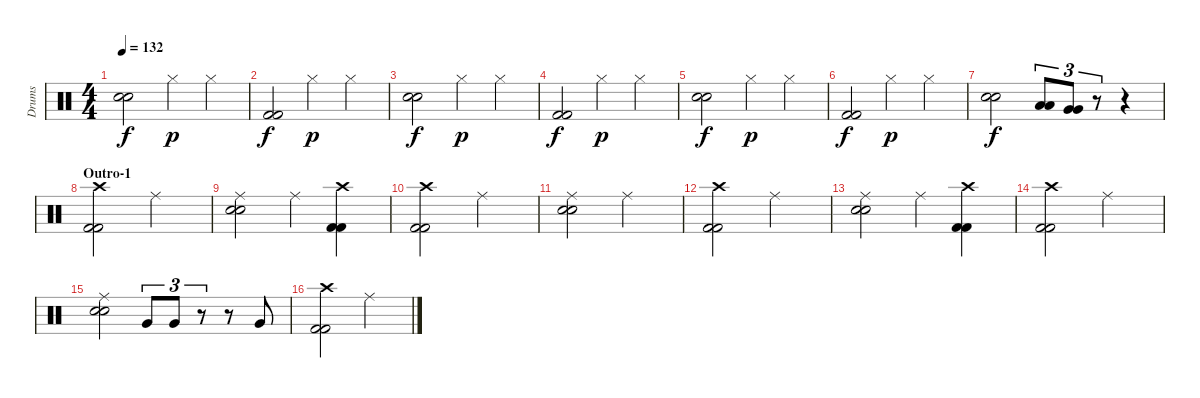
\track ("Drums" "Drums") {instrument percussion}
\staff {score}
\articulation defaults
\ts (4 4)
\tempo 132
\clef neutral
\ks c
("Snare (hit) 2" "Snare (hit) 2").2{dy f} "Hi-Hat (closed)".4{dy p} "Hi-Hat (closed)".4 |
("Kick (hit) 2" "Kick (hit) 2").2{dy f} "Hi-Hat (closed)".4{dy p} "Hi-Hat (closed)".4 |
("Snare (hit) 2" "Snare (hit) 2").2{dy f} "Hi-Hat (closed)".4{dy p} "Hi-Hat (closed)".4 |
("Kick (hit) 2" "Kick (hit) 2").2{dy f} "Hi-Hat (closed)".4{dy p} "Hi-Hat (closed)".4 |
("Snare (hit) 2" "Snare (hit) 2").2{dy f} "Hi-Hat (closed)".4{dy p} "Hi-Hat (closed)".4 |
("Kick (hit) 2" "Kick (hit) 2").2{dy f} "Hi-Hat (closed)".4{dy p} "Hi-Hat (closed)".4 |
("Snare (hit) 2" "Snare (hit) 2").2{dy f} ("Low Tom (hit)" "Low Tom (hit)").8{tu (3 2)} ("Very Low Tom (hit)" "Very Low Tom (hit)").8{tu (3 2)} r.8{tu (3 2)} r.4 |
\section ("" "Outro-1")
("Crash high (hit)" "Kick (hit) 2" "Kick (hit) 2").2 "Ride (middle)".2 |
("Ride (middle)" "Snare (hit) 2" "Snare (hit) 2").2 "Ride (middle)".4 ("Crash high (hit)" "Kick (hit) 2" "Kick (hit) 2").4 |
("Crash high (hit)" "Kick (hit) 2" "Kick (hit) 2").2 "Ride (middle)".2 |
("Ride (middle)" "Snare (hit) 2" "Snare (hit) 2").2 "Ride (middle)".2 |
("Crash high (hit)" "Kick (hit) 2" "Kick (hit) 2").2 "Ride (middle)".2 |
("Ride (middle)" "Snare (hit) 2" "Snare (hit) 2").2 "Ride (middle)".4 ("Crash high (hit)" "Kick (hit) 2" "Kick (hit) 2").4 |
("Crash high (hit)" "Kick (hit) 2" "Kick (hit) 2").2 "Ride (middle)".2 |
("Ride (middle)" "Snare (hit) 2" "Snare (hit) 2").2 "Very Low Tom (hit)".8{tu (3 2)} "Very Low Tom (hit)".8{tu (3 2)} r.8{tu (3 2)} r.8 "Very Low Tom (hit)".8 |
("Crash high (hit)" "Kick (hit) 2" "Kick (hit) 2").2 "Ride (middle)".2
